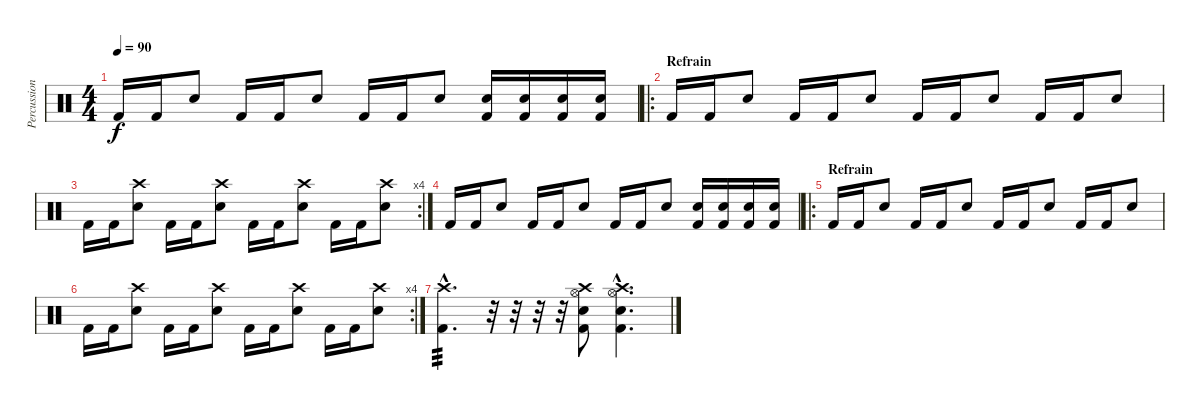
\track ("Percussions" "Percussion") {instrument percussion}
\staff {score}
\articulation defaults
\ts (4 4)
\tempo 90
\clef neutral
\ks c "Kick (hit) 2".16{dy f} "Kick (hit) 2".16 "Electric Snare (hit)".8 "Kick (hit) 2".16 "Kick (hit) 2".16 "Electric Snare (hit)".8 "Kick (hit) 2".16 "Kick (hit) 2".16 "Electric Snare (hit)".8
("Electric Snare (hit)" "Kick (hit) 2").16 ("Electric Snare (hit)" "Kick (hit) 2").16 ("Electric Snare (hit)" "Kick (hit) 2").16 ("Electric Snare (hit)" "Kick (hit) 2").16 |
\ro
\section ("" "Refrain")
"Kick (hit) 2".16 "Kick (hit) 2".16 "Electric Snare (hit)".8 "Kick (hit) 2".16 "Kick (hit) 2".16 "Electric Snare (hit)".8 "Kick (hit) 2".16 "Kick (hit) 2".16 "Electric Snare (hit)".8 "Kick (hit) 2".16 "Kick (hit) 2".16 "Electric Snare (hit)".8 |
\rc 4 "Kick (hit) 2".16 "Kick (hit) 2".16
("Crash high (hit)" "Electric Snare (hit)").8 "Kick (hit) 2".16 "Kick (hit) 2".16 ("Crash high (hit)" "Electric Snare (hit)").8 "Kick (hit) 2".16 "Kick (hit) 2".16 ("Crash high (hit)" "Electric Snare (hit)").8 "Kick (hit) 2".16 "Kick (hit) 2".16 ("Crash high (hit)" "Electric Snare (hit)").8 |
"Kick (hit) 2".16 "Kick (hit) 2".16 "Electric Snare (hit)".8 "Kick (hit) 2".16 "Kick (hit) 2".16 "Electric Snare (hit)".8 "Kick (hit) 2".16 "Kick (hit) 2".16 "Electric Snare (hit)".8 ("Electric Snare (hit)" "Kick (hit) 2").16 ("Electric Snare (hit)" "Kick (hit) 2").16 ("Electric Snare (hit)" "Kick (hit) 2").16 ("Electric Snare (hit)" "Kick (hit) 2").16 |
\ro
\section ("" "Refrain")
"Kick (hit) 2".16 "Kick (hit) 2".16 "Electric Snare (hit)".8 "Kick (hit) 2".16 "Kick (hit) 2".16 "Electric Snare (hit)".8 "Kick (hit) 2".16 "Kick (hit) 2".16 "Electric Snare (hit)".8 "Kick (hit) 2".16 "Kick (hit) 2".16 "Electric Snare (hit)".8 |
\rc 4 "Kick (hit) 2".16 "Kick (hit) 2".16
("Crash high (hit)" "Electric Snare (hit)").8 "Kick (hit) 2".16 "Kick (hit) 2".16 ("Crash high (hit)" "Electric Snare (hit)").8 "Kick (hit) 2".16 "Kick (hit) 2".16 ("Crash high (hit)" "Electric Snare (hit)").8 "Kick (hit) 2".16 "Kick (hit) 2".16 ("Crash high (hit)" "Electric Snare (hit)").8 |
("Crash high (hit)"{hac} "Kick (hit) 2"{hac}).4{d tp 3} r.32 r.32 r.32 r.32 ("Hi-Hat (open)" "Crash high (hit)" "Kick (hit) 2" "Electric Snare (hit)").8 ("Hi-Hat (open)"{hac} "Crash high (hit)"{hac} "Kick (hit) 2"{hac} "Electric Snare (hit)"{hac}).4{d}
